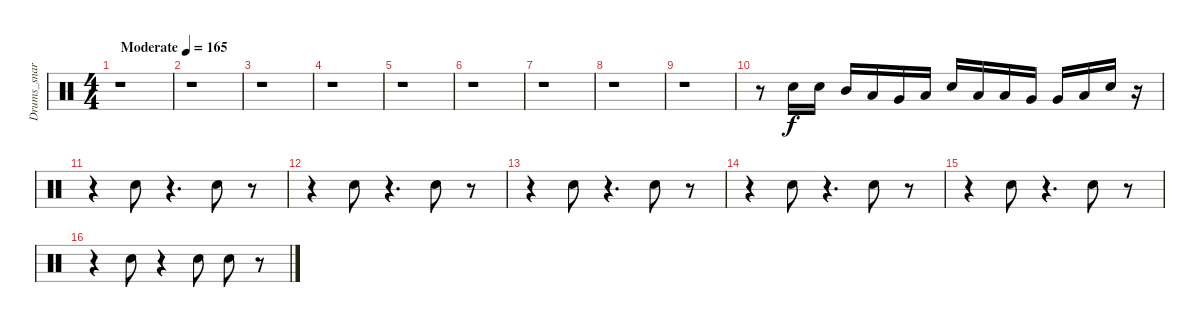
\track ("Drums_snare&tom" "Drums_snar") {instrument percussion}
\staff {score}
\articulation defaults
\ts (4 4)
\tempo (165 "Moderate")
\clef neutral
\ks c
r.1{dy f} |
r.1 |
r.1 |
r.1 |
r.1 |
r.1 |
r.1 |
r.1 |
r.1 |
r.8 "Snare (hit) 2".16 "Snare (hit) 2".16 "Mid Tom (hit)".16 "Low Tom (hit)".16 "Very Low Tom (hit)".16 "Low Floor Tom (hit)".16 "Snare (hit) 2".16 "Low Tom (hit)".16 "Low Tom (hit)".16 "Very Low Tom (hit)".16 "Very Low Tom (hit)".16 "Low Floor Tom (hit)".16 "Snare (hit) 2".16 r.16 |
r.4 "Snare (hit) 2".8 r.4{d} "Snare (hit) 2".8 r.8 |
r.4 "Snare (hit) 2".8 r.4{d} "Snare (hit) 2".8 r.8 |
r.4 "Snare (hit) 2".8 r.4{d} "Snare (hit) 2".8 r.8 |
r.4 "Snare (hit) 2".8 r.4{d} "Snare (hit) 2".8 r.8 |
r.4 "Snare (hit) 2".8 r.4{d} "Snare (hit) 2".8 r.8 |
r.4 "Snare (hit) 2".8 r.4 "Snare (hit) 2".8 "Snare (hit) 2".8 r.8
